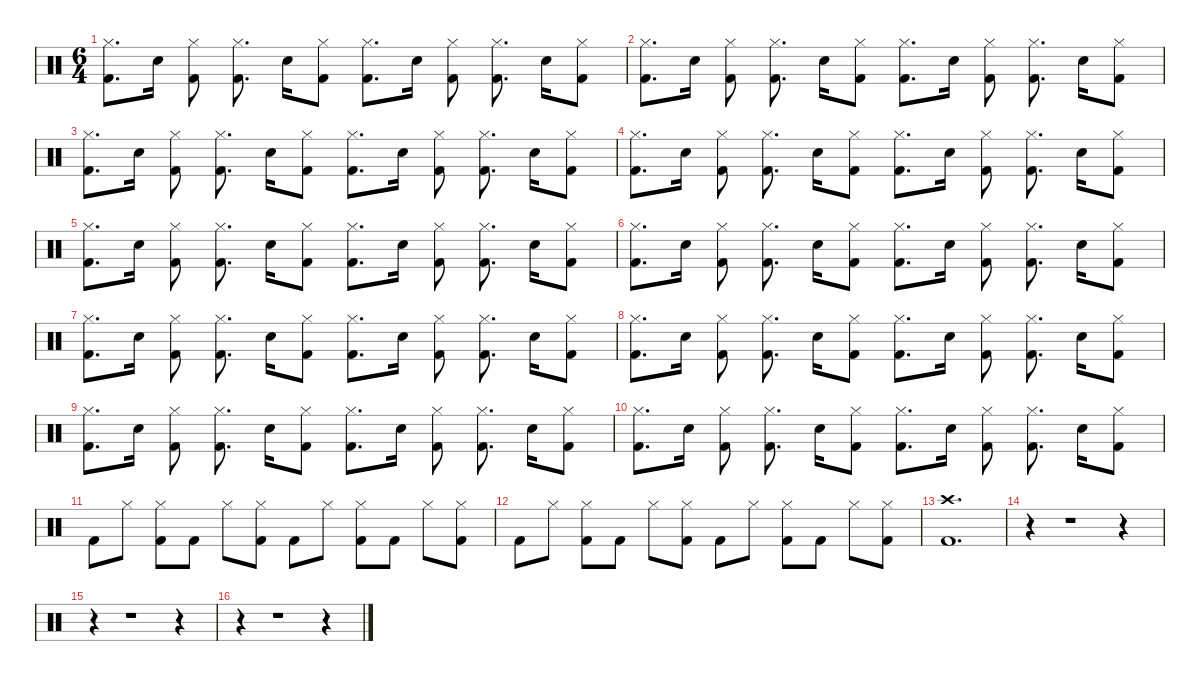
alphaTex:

\defaultSystemsLayout 4
\hideDynamics
\bracketExtendMode nobrackets
\singleTrackTrackNamePolicy hidden
\multiTrackTrackNamePolicy hidden
\firstSystemTrackNameMode fullname
\firstSystemTrackNameOrientation horizontal
\otherSystemsTrackNameOrientation horizontal
\track ("Percussion" "drm.") {instrument percussion}
\staff {score}
\articulation defaults
\ts (6 4)
\tempo (98 hide)
\clef neutral
\ks c
("Hi-Hat (closed)" "Kick (hit) 2").8{d dy mf beam Down} "Snare (hit) 2".16{dy f beam Down} ("Hi-Hat (closed)" "Kick (hit) 2").8{dy mf beam Down beam split} ("Hi-Hat (closed)" "Kick (hit) 2").8{d beam Down} "Snare (hit) 2".16{dy f beam Down} ("Hi-Hat (closed)" "Kick (hit) 2").8{dy mf beam Down} ("Hi-Hat (closed)" "Kick (hit) 2").8{d beam Down} "Snare (hit) 2".16{dy f beam Down} ("Hi-Hat (closed)" "Kick (hit) 2").8{dy mf beam Down beam split} ("Hi-Hat (closed)" "Kick (hit) 2").8{d beam Down} "Snare (hit) 2".16{dy f beam Down} ("Hi-Hat (closed)" "Kick (hit) 2").8{dy mf beam Down} |
("Hi-Hat (closed)" "Kick (hit) 2").8{d beam Down} "Snare (hit) 2".16{dy f beam Down} ("Hi-Hat (closed)" "Kick (hit) 2").8{dy mf beam Down beam split} ("Hi-Hat (closed)" "Kick (hit) 2").8{d beam Down} "Snare (hit) 2".16{dy f beam Down} ("Hi-Hat (closed)" "Kick (hit) 2").8{dy mf beam Down} ("Hi-Hat (closed)" "Kick (hit) 2").8{d beam Down} "Snare (hit) 2".16{dy f beam Down} ("Hi-Hat (closed)" "Kick (hit) 2").8{dy mf beam Down beam split} ("Hi-Hat (closed)" "Kick (hit) 2").8{d beam Down} "Snare (hit) 2".16{dy f beam Down} ("Hi-Hat (closed)" "Kick (hit) 2").8{dy mf beam Down} |
\tempo (97 hide)
("Hi-Hat (closed)" "Kick (hit) 2").8{d beam Down} "Snare (hit) 2".16{dy f beam Down} ("Hi-Hat (closed)" "Kick (hit) 2").8{dy mf beam Down beam split} ("Hi-Hat (closed)" "Kick (hit) 2").8{d beam Down} "Snare (hit) 2".16{dy f beam Down} ("Hi-Hat (closed)" "Kick (hit) 2").8{dy mf beam Down} ("Hi-Hat (closed)" "Kick (hit) 2").8{d beam Down} "Snare (hit) 2".16{dy f beam Down} ("Hi-Hat (closed)" "Kick (hit) 2").8{dy mf beam Down beam split} ("Hi-Hat (closed)" "Kick (hit) 2").8{d beam Down} "Snare (hit) 2".16{dy f beam Down} ("Hi-Hat (closed)" "Kick (hit) 2").8{dy mf beam Down} |
("Hi-Hat (closed)" "Kick (hit) 2").8{d beam Down} "Snare (hit) 2".16{dy f beam Down} ("Hi-Hat (closed)" "Kick (hit) 2").8{dy mf beam Down beam split} ("Hi-Hat (closed)" "Kick (hit) 2").8{d beam Down} "Snare (hit) 2".16{dy f beam Down} ("Hi-Hat (closed)" "Kick (hit) 2").8{dy mf beam Down} ("Hi-Hat (closed)" "Kick (hit) 2").8{d beam Down} "Snare (hit) 2".16{dy f beam Down} ("Hi-Hat (closed)" "Kick (hit) 2").8{dy mf beam Down beam split} ("Hi-Hat (closed)" "Kick (hit) 2").8{d beam Down} "Snare (hit) 2".16{dy f beam Down} ("Hi-Hat (closed)" "Kick (hit) 2").8{dy mf beam Down} |
\tempo (98 hide)
("Hi-Hat (closed)" "Kick (hit) 2").8{d beam Down} "Snare (hit) 2".16{dy f beam Down} ("Hi-Hat (closed)" "Kick (hit) 2").8{dy mf beam Down beam split} ("Hi-Hat (closed)" "Kick (hit) 2").8{d beam Down} "Snare (hit) 2".16{dy f beam Down} ("Hi-Hat (closed)" "Kick (hit) 2").8{dy mf beam Down} ("Hi-Hat (closed)" "Kick (hit) 2").8{d beam Down} "Snare (hit) 2".16{dy f beam Down} ("Hi-Hat (closed)" "Kick (hit) 2").8{dy mf beam Down beam split} ("Hi-Hat (closed)" "Kick (hit) 2").8{d beam Down} "Snare (hit) 2".16{dy f beam Down} ("Hi-Hat (closed)" "Kick (hit) 2").8{dy mf beam Down} |
("Hi-Hat (closed)" "Kick (hit) 2").8{d beam Down} "Snare (hit) 2".16{dy f beam Down} ("Hi-Hat (closed)" "Kick (hit) 2").8{dy mf beam Down beam split} ("Hi-Hat (closed)" "Kick (hit) 2").8{d beam Down} "Snare (hit) 2".16{dy f beam Down} ("Hi-Hat (closed)" "Kick (hit) 2").8{dy mf beam Down} ("Hi-Hat (closed)" "Kick (hit) 2").8{d beam Down} "Snare (hit) 2".16{dy f beam Down} ("Hi-Hat (closed)" "Kick (hit) 2").8{dy mf beam Down beam split} ("Hi-Hat (closed)" "Kick (hit) 2").8{d beam Down} "Snare (hit) 2".16{dy f beam Down} ("Hi-Hat (closed)" "Kick (hit) 2").8{dy mf beam Down} |
("Hi-Hat (closed)" "Kick (hit) 2").8{d beam Down} "Snare (hit) 2".16{dy f beam Down} ("Hi-Hat (closed)" "Kick (hit) 2").8{dy mf beam Down beam split} ("Hi-Hat (closed)" "Kick (hit) 2").8{d beam Down} "Snare (hit) 2".16{dy f beam Down} ("Hi-Hat (closed)" "Kick (hit) 2").8{dy mf beam Down} ("Hi-Hat (closed)" "Kick (hit) 2").8{d beam Down} "Snare (hit) 2".16{dy f beam Down} ("Hi-Hat (closed)" "Kick (hit) 2").8{dy mf beam Down beam split} ("Hi-Hat (closed)" "Kick (hit) 2").8{d beam Down} "Snare (hit) 2".16{dy f beam Down} ("Hi-Hat (closed)" "Kick (hit) 2").8{dy mf beam Down} |
("Hi-Hat (closed)" "Kick (hit) 2").8{d beam Down} "Snare (hit) 2".16{dy f beam Down} ("Hi-Hat (closed)" "Kick (hit) 2").8{dy mf beam Down beam split} ("Hi-Hat (closed)" "Kick (hit) 2").8{d beam Down} "Snare (hit) 2".16{dy f beam Down} ("Hi-Hat (closed)" "Kick (hit) 2").8{dy mf beam Down} ("Hi-Hat (closed)" "Kick (hit) 2").8{d beam Down} "Snare (hit) 2".16{dy f beam Down} ("Hi-Hat (closed)" "Kick (hit) 2").8{dy mf beam Down beam split} ("Hi-Hat (closed)" "Kick (hit) 2").8{d beam Down} "Snare (hit) 2".16{dy f beam Down} ("Hi-Hat (closed)" "Kick (hit) 2").8{dy mf beam Down} |
\tempo (97 hide)
("Hi-Hat (closed)" "Kick (hit) 2").8{d beam Down} "Snare (hit) 2".16{dy f beam Down} ("Hi-Hat (closed)" "Kick (hit) 2").8{dy mf beam Down beam split} ("Hi-Hat (closed)" "Kick (hit) 2").8{d beam Down} "Snare (hit) 2".16{dy f beam Down} ("Hi-Hat (closed)" "Kick (hit) 2").8{dy mf beam Down} ("Hi-Hat (closed)" "Kick (hit) 2").8{d beam Down} "Snare (hit) 2".16{dy f beam Down} ("Hi-Hat (closed)" "Kick (hit) 2").8{dy mf beam Down beam split} ("Hi-Hat (closed)" "Kick (hit) 2").8{d beam Down} "Snare (hit) 2".16{dy f beam Down} ("Hi-Hat (closed)" "Kick (hit) 2").8{dy mf beam Down} |
("Hi-Hat (closed)" "Kick (hit) 2").8{d beam Down} "Snare (hit) 2".16{dy f beam Down} ("Hi-Hat (closed)" "Kick (hit) 2").8{dy mf beam Down beam split} ("Hi-Hat (closed)" "Kick (hit) 2").8{d beam Down} "Snare (hit) 2".16{dy f beam Down} ("Hi-Hat (closed)" "Kick (hit) 2").8{dy mf beam Down} ("Hi-Hat (closed)" "Kick (hit) 2").8{d beam Down} "Snare (hit) 2".16{dy f beam Down} ("Hi-Hat (closed)" "Kick (hit) 2").8{dy mf beam Down beam split} ("Hi-Hat (closed)" "Kick (hit) 2").8{d beam Down} "Snare (hit) 2".16{dy f beam Down} ("Hi-Hat (closed)" "Kick (hit) 2").8{dy mf beam Down} |
"Kick (hit) 2".8{dy ff beam Down} "Hi-Hat (closed)".8{dy p beam Down} ("Hi-Hat (closed)" "Kick (hit) 2").8{dy mf beam Down} "Kick (hit) 2".8{dy ff beam Down} "Hi-Hat (closed)".8{dy p beam Down} ("Hi-Hat (closed)" "Kick (hit) 2").8{dy mf beam Down} "Kick (hit) 2".8{dy ff beam Down} "Hi-Hat (closed)".8{dy p beam Down} ("Hi-Hat (closed)" "Kick (hit) 2").8{dy mf beam Down} "Kick (hit) 2".8{dy ff beam Down} "Hi-Hat (closed)".8{dy p beam Down} ("Hi-Hat (closed)" "Kick (hit) 2").8{dy mf beam Down} |
"Kick (hit) 2".8{dy ff beam Down} "Hi-Hat (closed)".8{dy p beam Down} ("Hi-Hat (closed)" "Kick (hit) 2").8{dy mf beam Down} "Kick (hit) 2".8{dy ff beam Down} "Hi-Hat (closed)".8{dy p beam Down} ("Hi-Hat (closed)" "Kick (hit) 2").8{dy mf beam Down} "Kick (hit) 2".8{dy ff beam Down} "Hi-Hat (closed)".8{dy p beam Down} ("Hi-Hat (closed)" "Kick (hit) 2").8{dy mf beam Down} "Kick (hit) 2".8{dy ff beam Down} "Hi-Hat (closed)".8{dy p beam Down} ("Hi-Hat (closed)" "Kick (hit) 2").8{dy mf beam Down} |
\tempo (98 hide)
("Crash high (hit)" "Kick (hit) 2").1{d dy ff beam Down} |
r.4{beam Down} r.1{beam Down} r.4{beam Down} |
r.4{beam Down} r.1{beam Down} r.4{beam Down} |
r.4{beam Down} r.1{beam Down} r.4{beam Down}
